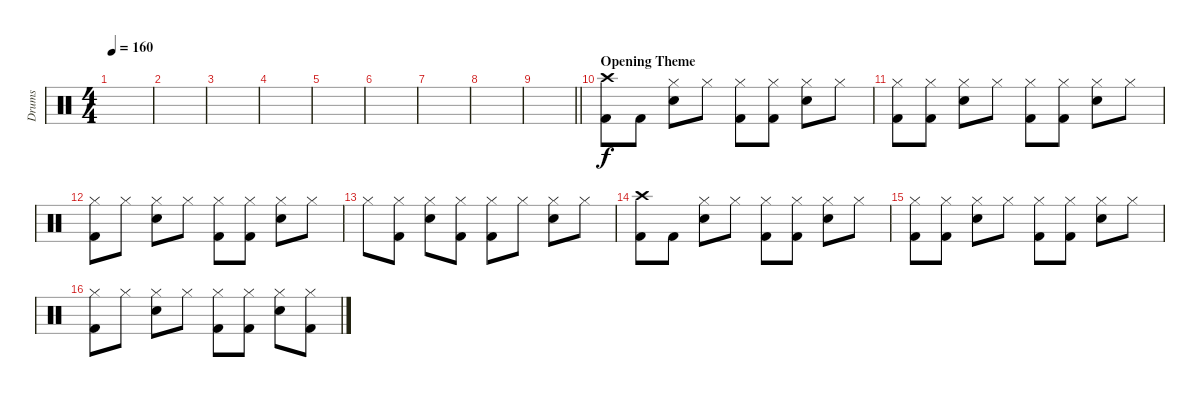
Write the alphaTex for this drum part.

\track ("Drums" "Drums") {instrument percussion}
\staff {score}
\articulation defaults
\ts (4 4)
\tempo 160
\clef neutral
\ks c
|
|
|
|
|
|
|
|
\barLineRight lightlight
|
\section ("" "Opening Theme")
("Crash high (hit)" "Kick (hit) 2").8 "Kick (hit) 2".8 ("Hi-Hat (closed)" "Snare (hit) 2").8 "Hi-Hat (closed)".8 ("Hi-Hat (closed)" "Kick (hit) 2").8 ("Hi-Hat (closed)" "Kick (hit) 2").8 ("Hi-Hat (closed)" "Snare (hit) 2").8 "Hi-Hat (closed)".8 |
("Hi-Hat (closed)" "Kick (hit) 2").8 ("Hi-Hat (closed)" "Kick (hit) 2").8 ("Hi-Hat (closed)" "Snare (hit) 2").8 "Hi-Hat (closed)".8 ("Hi-Hat (closed)" "Kick (hit) 2").8 ("Hi-Hat (closed)" "Kick (hit) 2").8 ("Hi-Hat (closed)" "Snare (hit) 2").8 "Hi-Hat (closed)".8 |
("Hi-Hat (closed)" "Kick (hit) 2").8 "Hi-Hat (closed)".8 ("Hi-Hat (closed)" "Snare (hit) 2").8 "Hi-Hat (closed)".8 ("Hi-Hat (closed)" "Kick (hit) 2").8 ("Hi-Hat (closed)" "Kick (hit) 2").8 ("Hi-Hat (closed)" "Snare (hit) 2").8 "Hi-Hat (closed)".8 |
"Hi-Hat (closed)".8 ("Hi-Hat (closed)" "Kick (hit) 2").8 ("Hi-Hat (closed)" "Snare (hit) 2").8 ("Hi-Hat (closed)" "Kick (hit) 2").8 ("Hi-Hat (closed)" "Kick (hit) 2").8 "Hi-Hat (closed)".8 ("Hi-Hat (closed)" "Snare (hit) 2").8 "Hi-Hat (closed)".8 |
("Crash high (hit)" "Kick (hit) 2").8 "Kick (hit) 2".8 ("Hi-Hat (closed)" "Snare (hit) 2").8 "Hi-Hat (closed)".8 ("Hi-Hat (closed)" "Kick (hit) 2").8 ("Hi-Hat (closed)" "Kick (hit) 2").8 ("Hi-Hat (closed)" "Snare (hit) 2").8 "Hi-Hat (closed)".8 |
("Hi-Hat (closed)" "Kick (hit) 2").8 ("Hi-Hat (closed)" "Kick (hit) 2").8 ("Hi-Hat (closed)" "Snare (hit) 2").8 "Hi-Hat (closed)".8 ("Hi-Hat (closed)" "Kick (hit) 2").8 ("Hi-Hat (closed)" "Kick (hit) 2").8 ("Hi-Hat (closed)" "Snare (hit) 2").8 "Hi-Hat (closed)".8 |
("Hi-Hat (closed)" "Kick (hit) 2").8 "Hi-Hat (closed)".8 ("Hi-Hat (closed)" "Snare (hit) 2").8 "Hi-Hat (closed)".8 ("Hi-Hat (closed)" "Kick (hit) 2").8 ("Hi-Hat (closed)" "Kick (hit) 2").8 ("Hi-Hat (closed)" "Snare (hit) 2").8 ("Hi-Hat (closed)" "Kick (hit) 2").8
